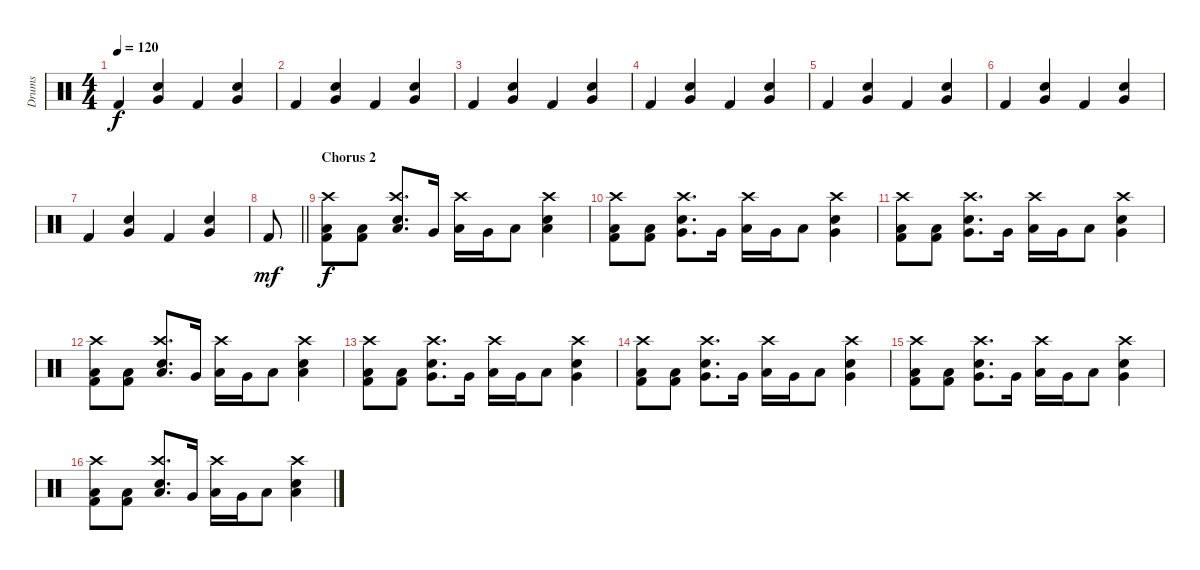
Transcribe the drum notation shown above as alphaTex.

\track ("Drums" "Drums") {instrument percussion}
\staff {score}
\articulation defaults
\ts (4 4)
\tempo 120
\clef neutral
\ks c "Kick (hit) 2".4{dy f}
("Electric Snare (hit)" "Very Low Tom (hit)").4 "Kick (hit) 2".4 ("Electric Snare (hit)" "Very Low Tom (hit)").4 |
"Kick (hit) 2".4 ("Electric Snare (hit)" "Very Low Tom (hit)").4 "Kick (hit) 2".4 ("Electric Snare (hit)" "Very Low Tom (hit)").4 |
"Kick (hit) 2".4 ("Electric Snare (hit)" "Very Low Tom (hit)").4 "Kick (hit) 2".4 ("Electric Snare (hit)" "Very Low Tom (hit)").4 |
"Kick (hit) 2".4 ("Electric Snare (hit)" "Very Low Tom (hit)").4 "Kick (hit) 2".4 ("Electric Snare (hit)" "Very Low Tom (hit)").4 |
"Kick (hit) 2".4 ("Electric Snare (hit)" "Very Low Tom (hit)").4 "Kick (hit) 2".4 ("Electric Snare (hit)" "Very Low Tom (hit)").4 |
"Kick (hit) 2".4 ("Electric Snare (hit)" "Very Low Tom (hit)").4 "Kick (hit) 2".4 ("Electric Snare (hit)" "Very Low Tom (hit)").4 |
"Kick (hit) 2".4 ("Electric Snare (hit)" "Very Low Tom (hit)").4 "Kick (hit) 2".4 ("Electric Snare (hit)" "Very Low Tom (hit)").4 |
\barLineRight lightlight "Kick (hit) 2".8{dy mf}
|
\section ("" "Chorus 2")
("Low Floor Tom (hit)" "Kick (hit) 2" "Crash high (hit)").8{dy f} ("Low Floor Tom (hit)" "Kick (hit) 2").8 ("Low Tom (hit)" "Electric Snare (hit)" "Crash high (hit)").8{d} "Very Low Tom (hit)".16 ("Low Tom (hit)" "Crash high (hit)").16 "Very Low Tom (hit)".16 "Low Tom (hit)".8 ("Electric Snare (hit)" "Low Tom (hit)" "Crash high (hit)").4 |
("Low Floor Tom (hit)" "Kick (hit) 2" "Crash high (hit)").8 ("Low Floor Tom (hit)" "Kick (hit) 2").8 ("Very Low Tom (hit)" "Electric Snare (hit)" "Crash high (hit)").8{d} "Very Low Tom (hit)".16 ("Low Tom (hit)" "Crash high (hit)").16 "Very Low Tom (hit)".16 "Low Tom (hit)".8 ("Electric Snare (hit)" "Very Low Tom (hit)" "Crash high (hit)").4 |
("Low Floor Tom (hit)" "Kick (hit) 2" "Crash high (hit)").8 ("Low Floor Tom (hit)" "Kick (hit) 2").8 ("Very Low Tom (hit)" "Electric Snare (hit)" "Crash high (hit)").8{d} "Very Low Tom (hit)".16 ("Low Tom (hit)" "Crash high (hit)").16 "Very Low Tom (hit)".16 "Low Tom (hit)".8 ("Electric Snare (hit)" "Very Low Tom (hit)" "Crash high (hit)").4 |
("Low Floor Tom (hit)" "Kick (hit) 2" "Crash high (hit)").8 ("Low Floor Tom (hit)" "Kick (hit) 2").8 ("Low Tom (hit)" "Electric Snare (hit)" "Crash high (hit)").8{d} "Very Low Tom (hit)".16 ("Low Tom (hit)" "Crash high (hit)").16 "Very Low Tom (hit)".16 "Low Tom (hit)".8 ("Electric Snare (hit)" "Low Tom (hit)" "Crash high (hit)").4 |
("Low Floor Tom (hit)" "Kick (hit) 2" "Crash high (hit)").8 ("Low Floor Tom (hit)" "Kick (hit) 2").8 ("Very Low Tom (hit)" "Electric Snare (hit)" "Crash high (hit)").8{d} "Very Low Tom (hit)".16 ("Low Tom (hit)" "Crash high (hit)").16 "Very Low Tom (hit)".16 "Low Tom (hit)".8 ("Electric Snare (hit)" "Very Low Tom (hit)" "Crash high (hit)").4 |
("Low Floor Tom (hit)" "Kick (hit) 2" "Crash high (hit)").8 ("Low Floor Tom (hit)" "Kick (hit) 2").8 ("Very Low Tom (hit)" "Electric Snare (hit)" "Crash high (hit)").8{d} "Very Low Tom (hit)".16 ("Low Tom (hit)" "Crash high (hit)").16 "Very Low Tom (hit)".16 "Low Tom (hit)".8 ("Electric Snare (hit)" "Very Low Tom (hit)" "Crash high (hit)").4 |
("Low Floor Tom (hit)" "Kick (hit) 2" "Crash high (hit)").8 ("Low Floor Tom (hit)" "Kick (hit) 2").8 ("Very Low Tom (hit)" "Electric Snare (hit)" "Crash high (hit)").8{d} "Very Low Tom (hit)".16 ("Low Tom (hit)" "Crash high (hit)").16 "Very Low Tom (hit)".16 "Low Tom (hit)".8 ("Electric Snare (hit)" "Very Low Tom (hit)" "Crash high (hit)").4 |
("Low Floor Tom (hit)" "Kick (hit) 2" "Crash high (hit)").8 ("Low Floor Tom (hit)" "Kick (hit) 2").8 ("Low Tom (hit)" "Electric Snare (hit)" "Crash high (hit)").8{d} "Very Low Tom (hit)".16 ("Low Tom (hit)" "Crash high (hit)").16 "Very Low Tom (hit)".16 "Low Tom (hit)".8 ("Electric Snare (hit)" "Low Tom (hit)" "Crash high (hit)").4
